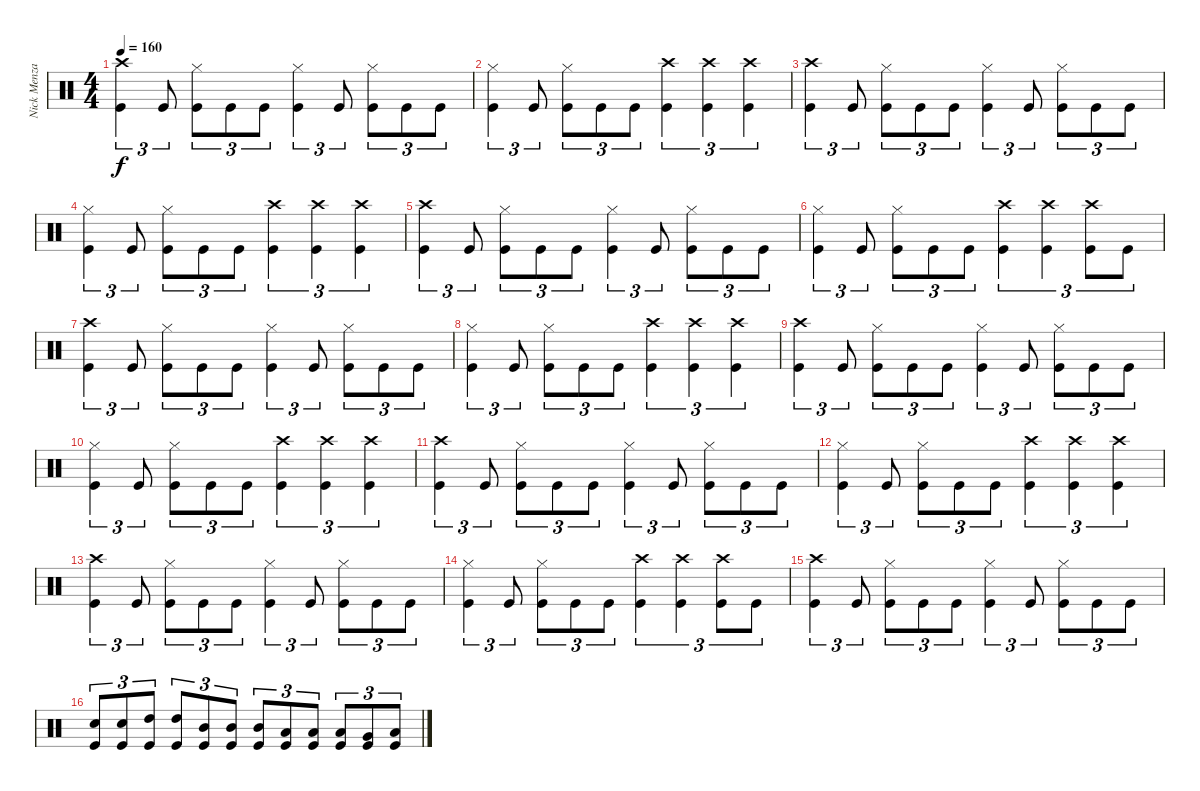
\track ("Nick Menza" "Nick Menza") {instrument percussion}
\staff {score}
\articulation defaults
\ts (4 4)
\tempo 160
\clef neutral
\ks c
("Crash high (hit)" "Kick (hit)").4{tu (3 2) dy f} "Kick (hit)".8{tu (3 2)} ("Hi-Hat (closed)" "Kick (hit)").8{tu (3 2)} "Kick (hit)".8{tu (3 2)} "Kick (hit)".8{tu (3 2)} ("Hi-Hat (closed)" "Kick (hit)").4{tu (3 2)} "Kick (hit)".8{tu (3 2)} ("Hi-Hat (closed)" "Kick (hit)").8{tu (3 2)} "Kick (hit)".8{tu (3 2)} "Kick (hit)".8{tu (3 2)} |
("Hi-Hat (closed)" "Kick (hit)").4{tu (3 2)} "Kick (hit)".8{tu (3 2)} ("Hi-Hat (closed)" "Kick (hit)").8{tu (3 2)} "Kick (hit)".8{tu (3 2)} "Kick (hit)".8{tu (3 2)} ("Crash high (hit)" "Kick (hit)").4{tu (3 2)} ("Crash high (hit)" "Kick (hit)").4{tu (3 2)} ("Crash high (hit)" "Kick (hit)").4{tu (3 2)} |
("Crash high (hit)" "Kick (hit)").4{tu (3 2)} "Kick (hit)".8{tu (3 2)} ("Hi-Hat (closed)" "Kick (hit)").8{tu (3 2)} "Kick (hit)".8{tu (3 2)} "Kick (hit)".8{tu (3 2)} ("Hi-Hat (closed)" "Kick (hit)").4{tu (3 2)} "Kick (hit)".8{tu (3 2)} ("Hi-Hat (closed)" "Kick (hit)").8{tu (3 2)} "Kick (hit)".8{tu (3 2)} "Kick (hit)".8{tu (3 2)} |
("Hi-Hat (closed)" "Kick (hit)").4{tu (3 2)} "Kick (hit)".8{tu (3 2)} ("Hi-Hat (closed)" "Kick (hit)").8{tu (3 2)} "Kick (hit)".8{tu (3 2)} "Kick (hit)".8{tu (3 2)} ("Crash high (hit)" "Kick (hit)").4{tu (3 2)} ("Crash high (hit)" "Kick (hit)").4{tu (3 2)} ("Crash high (hit)" "Kick (hit)").4{tu (3 2)} |
("Crash high (hit)" "Kick (hit)").4{tu (3 2)} "Kick (hit)".8{tu (3 2)} ("Hi-Hat (closed)" "Kick (hit)").8{tu (3 2)} "Kick (hit)".8{tu (3 2)} "Kick (hit)".8{tu (3 2)} ("Hi-Hat (closed)" "Kick (hit)").4{tu (3 2)} "Kick (hit)".8{tu (3 2)} ("Hi-Hat (closed)" "Kick (hit)").8{tu (3 2)} "Kick (hit)".8{tu (3 2)} "Kick (hit)".8{tu (3 2)} |
("Hi-Hat (closed)" "Kick (hit)").4{tu (3 2)} "Kick (hit)".8{tu (3 2)} ("Hi-Hat (closed)" "Kick (hit)").8{tu (3 2)} "Kick (hit)".8{tu (3 2)} "Kick (hit)".8{tu (3 2)} ("Crash high (hit)" "Kick (hit)").4{tu (3 2)} ("Crash high (hit)" "Kick (hit)").4{tu (3 2)} ("Crash high (hit)" "Kick (hit)").8{tu (3 2)} "Kick (hit)".8{tu (3 2)} |
("Crash high (hit)" "Kick (hit)").4{tu (3 2)} "Kick (hit)".8{tu (3 2)} ("Hi-Hat (closed)" "Kick (hit)").8{tu (3 2)} "Kick (hit)".8{tu (3 2)} "Kick (hit)".8{tu (3 2)} ("Hi-Hat (closed)" "Kick (hit)").4{tu (3 2)} "Kick (hit)".8{tu (3 2)} ("Hi-Hat (closed)" "Kick (hit)").8{tu (3 2)} "Kick (hit)".8{tu (3 2)} "Kick (hit)".8{tu (3 2)} |
("Hi-Hat (closed)" "Kick (hit)").4{tu (3 2)} "Kick (hit)".8{tu (3 2)} ("Hi-Hat (closed)" "Kick (hit)").8{tu (3 2)} "Kick (hit)".8{tu (3 2)} "Kick (hit)".8{tu (3 2)} ("Crash high (hit)" "Kick (hit)").4{tu (3 2)} ("Crash high (hit)" "Kick (hit)").4{tu (3 2)} ("Crash high (hit)" "Kick (hit)").4{tu (3 2)} |
("Crash high (hit)" "Kick (hit)").4{tu (3 2)} "Kick (hit)".8{tu (3 2)} ("Hi-Hat (closed)" "Kick (hit)").8{tu (3 2)} "Kick (hit)".8{tu (3 2)} "Kick (hit)".8{tu (3 2)} ("Hi-Hat (closed)" "Kick (hit)").4{tu (3 2)} "Kick (hit)".8{tu (3 2)} ("Hi-Hat (closed)" "Kick (hit)").8{tu (3 2)} "Kick (hit)".8{tu (3 2)} "Kick (hit)".8{tu (3 2)} |
("Hi-Hat (closed)" "Kick (hit)").4{tu (3 2)} "Kick (hit)".8{tu (3 2)} ("Hi-Hat (closed)" "Kick (hit)").8{tu (3 2)} "Kick (hit)".8{tu (3 2)} "Kick (hit)".8{tu (3 2)} ("Crash high (hit)" "Kick (hit)").4{tu (3 2)} ("Crash high (hit)" "Kick (hit)").4{tu (3 2)} ("Crash high (hit)" "Kick (hit)").4{tu (3 2)} |
("Crash high (hit)" "Kick (hit)").4{tu (3 2)} "Kick (hit)".8{tu (3 2)} ("Hi-Hat (closed)" "Kick (hit)").8{tu (3 2)} "Kick (hit)".8{tu (3 2)} "Kick (hit)".8{tu (3 2)} ("Hi-Hat (closed)" "Kick (hit)").4{tu (3 2)} "Kick (hit)".8{tu (3 2)} ("Hi-Hat (closed)" "Kick (hit)").8{tu (3 2)} "Kick (hit)".8{tu (3 2)} "Kick (hit)".8{tu (3 2)} |
("Hi-Hat (closed)" "Kick (hit)").4{tu (3 2)} "Kick (hit)".8{tu (3 2)} ("Hi-Hat (closed)" "Kick (hit)").8{tu (3 2)} "Kick (hit)".8{tu (3 2)} "Kick (hit)".8{tu (3 2)} ("Crash high (hit)" "Kick (hit)").4{tu (3 2)} ("Crash high (hit)" "Kick (hit)").4{tu (3 2)} ("Crash high (hit)" "Kick (hit)").4{tu (3 2)} |
("Crash high (hit)" "Kick (hit)").4{tu (3 2)} "Kick (hit)".8{tu (3 2)} ("Hi-Hat (closed)" "Kick (hit)").8{tu (3 2)} "Kick (hit)".8{tu (3 2)} "Kick (hit)".8{tu (3 2)} ("Hi-Hat (closed)" "Kick (hit)").4{tu (3 2)} "Kick (hit)".8{tu (3 2)} ("Hi-Hat (closed)" "Kick (hit)").8{tu (3 2)} "Kick (hit)".8{tu (3 2)} "Kick (hit)".8{tu (3 2)} |
("Hi-Hat (closed)" "Kick (hit)").4{tu (3 2)} "Kick (hit)".8{tu (3 2)} ("Hi-Hat (closed)" "Kick (hit)").8{tu (3 2)} "Kick (hit)".8{tu (3 2)} "Kick (hit)".8{tu (3 2)} ("Crash high (hit)" "Kick (hit)").4{tu (3 2)} ("Crash high (hit)" "Kick (hit)").4{tu (3 2)} ("Crash high (hit)" "Kick (hit)").8{tu (3 2)} "Kick (hit)".8{tu (3 2)} |
("Crash high (hit)" "Kick (hit)").4{tu (3 2)} "Kick (hit)".8{tu (3 2)} ("Hi-Hat (closed)" "Kick (hit)").8{tu (3 2)} "Kick (hit)".8{tu (3 2)} "Kick (hit)".8{tu (3 2)} ("Hi-Hat (closed)" "Kick (hit)").4{tu (3 2)} "Kick (hit)".8{tu (3 2)} ("Hi-Hat (closed)" "Kick (hit)").8{tu (3 2)} "Kick (hit)".8{tu (3 2)} "Kick (hit)".8{tu (3 2)} |
("Snare (hit) 2" "Kick (hit)").8{tu (3 2)} ("Snare (hit) 2" "Kick (hit)").8{tu (3 2)} ("High Tom (hit)" "Kick (hit)").8{tu (3 2)} ("High Tom (hit)" "Kick (hit)").8{tu (3 2)} ("Mid Tom (hit)" "Kick (hit)").8{tu (3 2)} ("Mid Tom (hit)" "Kick (hit)").8{tu (3 2)} ("Mid Tom (hit)" "Kick (hit)").8{tu (3 2)} ("Low Tom (hit)" "Kick (hit)").8{tu (3 2)} ("Low Tom (hit)" "Kick (hit)").8{tu (3 2)} ("Low Tom (hit)" "Kick (hit)").8{tu (3 2)} ("Very Low Tom (hit)" "Kick (hit)").8{tu (3 2)} ("Low Floor Tom (hit)" "Kick (hit)").8{tu (3 2)}
